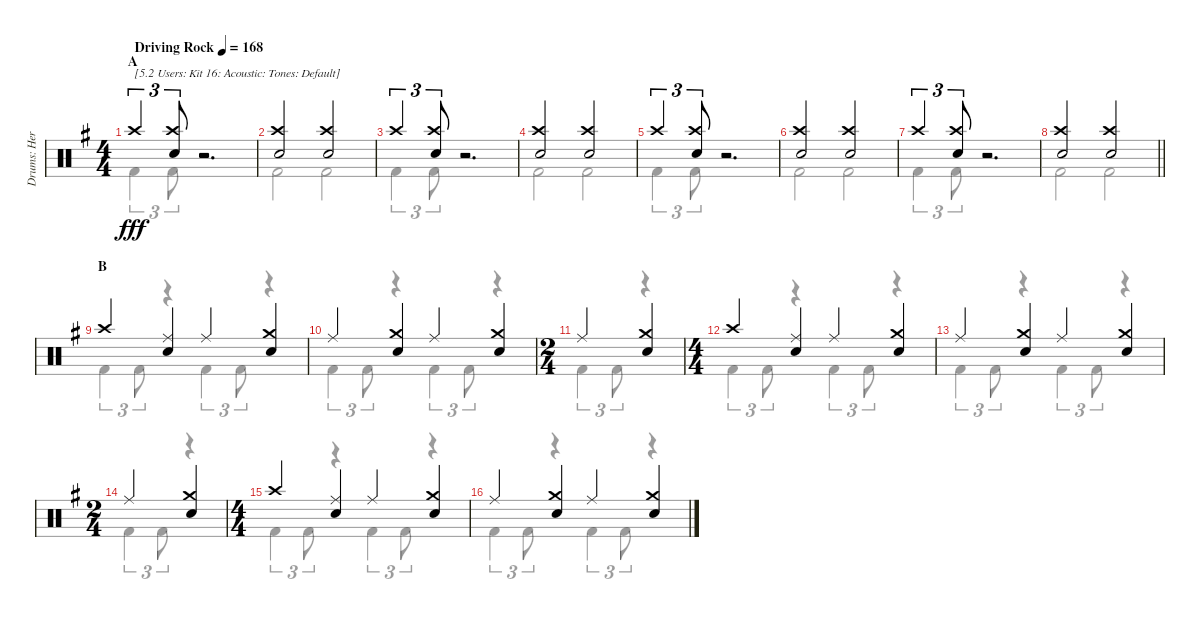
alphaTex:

\track ("Drums: Herman" "Drums: Her") {instrument percussion}
\staff {score}
\articulation defaults
\voice
\ts (4 4)
\section ("" "A")
\tempo (168 "Driving Rock")
\clef neutral
\ks g "Crash high (hit)".4{tu (3 2) txt "[5.2 Users: Kit 16: Acoustic: Tones: Default]" dy fff}
("Crash high (hit)" "Snare (hit) 2").8{tu (3 2)} r.2{d} |
("Crash high (hit)" "Snare (hit) 2").2 ("Crash high (hit)" "Snare (hit) 2").2 |
"Crash high (hit)".4{tu (3 2)} ("Crash high (hit)" "Snare (hit) 2").8{tu (3 2)} r.2{d} |
("Crash high (hit)" "Snare (hit) 2").2 ("Crash high (hit)" "Snare (hit) 2").2 |
"Crash high (hit)".4{tu (3 2)} ("Crash high (hit)" "Snare (hit) 2").8{tu (3 2)} r.2{d} |
("Crash high (hit)" "Snare (hit) 2").2 ("Crash high (hit)" "Snare (hit) 2").2 |
"Crash high (hit)".4{tu (3 2)} ("Crash high (hit)" "Snare (hit) 2").8{tu (3 2)} r.2{d} |
\barLineRight lightlight
("Crash high (hit)" "Snare (hit) 2").2 ("Crash high (hit)" "Snare (hit) 2").2 |
\section ("" "B")
"Crash high (hit)".4 ("Ride (middle)" "Snare (hit) 2").4 "Ride (middle)".4 ("Crash medium (hit)" "Snare (hit) 2").4 |
"Ride (middle)".4 ("Crash medium (hit)" "Snare (hit) 2").4 "Ride (middle)".4 ("Crash medium (hit)" "Snare (hit) 2").4 |
\ts (2 4)
"Ride (middle)".4 ("Crash medium (hit)" "Snare (hit) 2").4 |
\ts (4 4)
"Crash high (hit)".4 ("Ride (middle)" "Snare (hit) 2").4 "Ride (middle)".4 ("Crash medium (hit)" "Snare (hit) 2").4 |
"Ride (middle)".4 ("Crash medium (hit)" "Snare (hit) 2").4 "Ride (middle)".4 ("Crash medium (hit)" "Snare (hit) 2").4 |
\ts (2 4)
"Ride (middle)".4 ("Crash medium (hit)" "Snare (hit) 2").4 |
\ts (4 4)
"Crash high (hit)".4 ("Ride (middle)" "Snare (hit) 2").4 "Ride (middle)".4 ("Crash medium (hit)" "Snare (hit) 2").4 |
"Ride (middle)".4 ("Crash medium (hit)" "Snare (hit) 2").4 "Ride (middle)".4 ("Crash medium (hit)" "Snare (hit) 2").4
\voice
\clef neutral
\ottava regular
\simile none
\ks g "Kick (hit) 2".4{tu (3 2) dy fff} "Kick (hit) 2".8{tu (3 2)}
r.2{d} |
"Kick (hit) 2".2 "Kick (hit) 2".2 |
"Kick (hit) 2".4{tu (3 2)} "Kick (hit) 2".8{tu (3 2)} r.2{d} |
"Kick (hit) 2".2 "Kick (hit) 2".2 |
"Kick (hit) 2".4{tu (3 2)} "Kick (hit) 2".8{tu (3 2)} r.2{d} |
"Kick (hit) 2".2 "Kick (hit) 2".2 |
"Kick (hit) 2".4{tu (3 2)} "Kick (hit) 2".8{tu (3 2)} r.2{d} |
\barLineRight lightlight "Kick (hit) 2".2 "Kick (hit) 2".2
|
"Kick (hit) 2".4{tu (3 2)} "Kick (hit) 2".8{tu (3 2)} r.4 "Kick (hit) 2".4{tu (3 2)} "Kick (hit) 2".8{tu (3 2)} r.4 |
"Kick (hit) 2".4{tu (3 2)} "Kick (hit) 2".8{tu (3 2)} r.4 "Kick (hit) 2".4{tu (3 2)} "Kick (hit) 2".8{tu (3 2)} r.4 |
"Kick (hit) 2".4{tu (3 2)} "Kick (hit) 2".8{tu (3 2)} r.4 |
"Kick (hit) 2".4{tu (3 2)} "Kick (hit) 2".8{tu (3 2)} r.4 "Kick (hit) 2".4{tu (3 2)} "Kick (hit) 2".8{tu (3 2)} r.4 |
"Kick (hit) 2".4{tu (3 2)} "Kick (hit) 2".8{tu (3 2)} r.4 "Kick (hit) 2".4{tu (3 2)} "Kick (hit) 2".8{tu (3 2)} r.4 |
"Kick (hit) 2".4{tu (3 2)} "Kick (hit) 2".8{tu (3 2)} r.4 |
"Kick (hit) 2".4{tu (3 2)} "Kick (hit) 2".8{tu (3 2)} r.4 "Kick (hit) 2".4{tu (3 2)} "Kick (hit) 2".8{tu (3 2)} r.4 |
"Kick (hit) 2".4{tu (3 2)} "Kick (hit) 2".8{tu (3 2)} r.4 "Kick (hit) 2".4{tu (3 2)} "Kick (hit) 2".8{tu (3 2)} r.4
